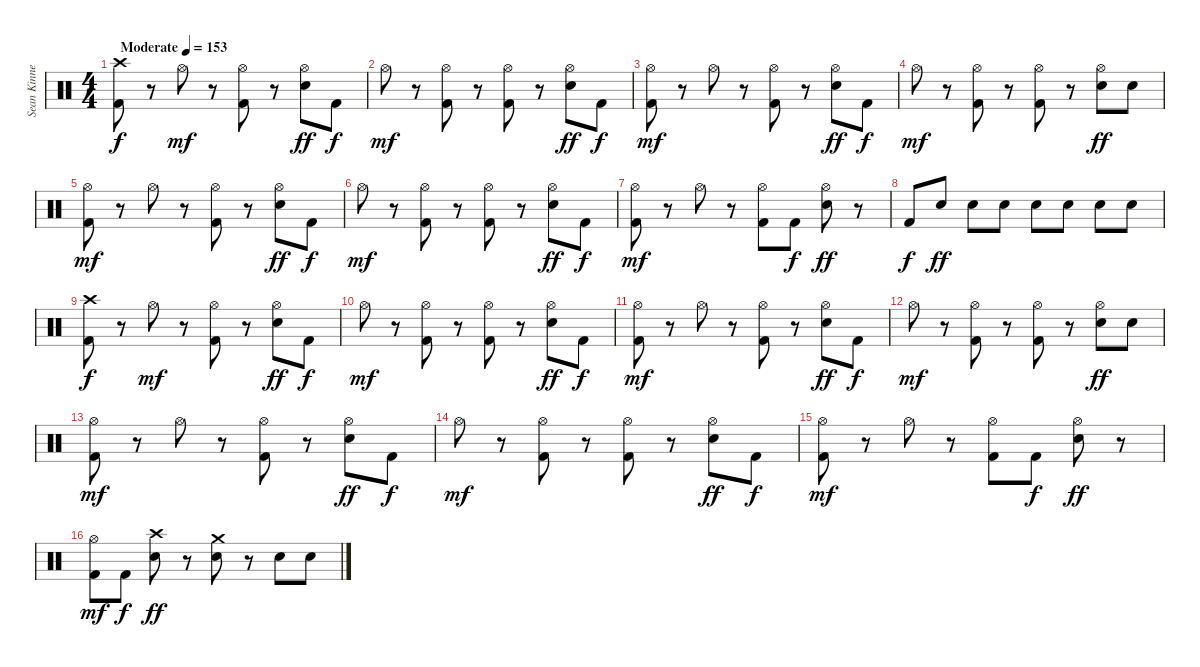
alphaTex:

\track ("Sean Kinney - Drums" "Sean Kinne") {instrument percussion}
\staff {score}
\articulation defaults
\ts (4 4)
\tempo (153 "Moderate")
\clef neutral
\ks c
("Crash high (hit)" "Kick (hit) 2").8{dy f} r.8 "Hi-Hat (open)".8{dy mf} r.8 ("Hi-Hat (open)" "Kick (hit) 2").8 r.8 ("Hi-Hat (open)" "Snare (hit) 2").8{dy ff} "Kick (hit) 2".8{dy f} |
"Hi-Hat (open)".8{dy mf} r.8 ("Hi-Hat (open)" "Kick (hit) 2").8 r.8 ("Hi-Hat (open)" "Kick (hit) 2").8 r.8 ("Hi-Hat (open)" "Snare (hit) 2").8{dy ff} "Kick (hit) 2".8{dy f} |
("Hi-Hat (open)" "Kick (hit) 2").8{dy mf} r.8 "Hi-Hat (open)".8 r.8 ("Hi-Hat (open)" "Kick (hit) 2").8 r.8 ("Hi-Hat (open)" "Snare (hit) 2").8{dy ff} "Kick (hit) 2".8{dy f} |
"Hi-Hat (open)".8{dy mf} r.8 ("Hi-Hat (open)" "Kick (hit) 2").8 r.8 ("Hi-Hat (open)" "Kick (hit) 2").8 r.8 ("Hi-Hat (open)" "Snare (hit) 2").8{dy ff} "Snare (hit) 2".8 |
("Hi-Hat (open)" "Kick (hit) 2").8{dy mf} r.8 "Hi-Hat (open)".8 r.8 ("Hi-Hat (open)" "Kick (hit) 2").8 r.8 ("Hi-Hat (open)" "Snare (hit) 2").8{dy ff} "Kick (hit) 2".8{dy f} |
"Hi-Hat (open)".8{dy mf} r.8 ("Hi-Hat (open)" "Kick (hit) 2").8 r.8 ("Hi-Hat (open)" "Kick (hit) 2").8 r.8 ("Hi-Hat (open)" "Snare (hit) 2").8{dy ff} "Kick (hit) 2".8{dy f} |
("Hi-Hat (open)" "Kick (hit) 2").8{dy mf} r.8 "Hi-Hat (open)".8 r.8 ("Hi-Hat (open)" "Kick (hit) 2").8 "Kick (hit) 2".8{dy f} ("Hi-Hat (open)" "Snare (hit) 2").8{dy ff} r.8 |
"Kick (hit) 2".8{dy f} "Snare (hit) 2".8{dy ff} "Snare (hit) 2".8 "Snare (hit) 2".8 "Snare (hit) 2".8 "Snare (hit) 2".8 "Snare (hit) 2".8 "Snare (hit) 2".8 |
("Crash high (hit)" "Kick (hit) 2").8{dy f} r.8 "Hi-Hat (open)".8{dy mf} r.8 ("Hi-Hat (open)" "Kick (hit) 2").8 r.8 ("Hi-Hat (open)" "Snare (hit) 2").8{dy ff} "Kick (hit) 2".8{dy f} |
"Hi-Hat (open)".8{dy mf} r.8 ("Hi-Hat (open)" "Kick (hit) 2").8 r.8 ("Hi-Hat (open)" "Kick (hit) 2").8 r.8 ("Hi-Hat (open)" "Snare (hit) 2").8{dy ff} "Kick (hit) 2".8{dy f} |
("Hi-Hat (open)" "Kick (hit) 2").8{dy mf} r.8 "Hi-Hat (open)".8 r.8 ("Hi-Hat (open)" "Kick (hit) 2").8 r.8 ("Hi-Hat (open)" "Snare (hit) 2").8{dy ff} "Kick (hit) 2".8{dy f} |
"Hi-Hat (open)".8{dy mf} r.8 ("Hi-Hat (open)" "Kick (hit) 2").8 r.8 ("Hi-Hat (open)" "Kick (hit) 2").8 r.8 ("Hi-Hat (open)" "Snare (hit) 2").8{dy ff} "Snare (hit) 2".8 |
("Hi-Hat (open)" "Kick (hit) 2").8{dy mf} r.8 "Hi-Hat (open)".8 r.8 ("Hi-Hat (open)" "Kick (hit) 2").8 r.8 ("Hi-Hat (open)" "Snare (hit) 2").8{dy ff} "Kick (hit) 2".8{dy f} |
"Hi-Hat (open)".8{dy mf} r.8 ("Hi-Hat (open)" "Kick (hit) 2").8 r.8 ("Hi-Hat (open)" "Kick (hit) 2").8 r.8 ("Hi-Hat (open)" "Snare (hit) 2").8{dy ff} "Kick (hit) 2".8{dy f} |
("Hi-Hat (open)" "Kick (hit) 2").8{dy mf} r.8 "Hi-Hat (open)".8 r.8 ("Hi-Hat (open)" "Kick (hit) 2").8 "Kick (hit) 2".8{dy f} ("Hi-Hat (open)" "Snare (hit) 2").8{dy ff} r.8 |
("Hi-Hat (open)" "Kick (hit) 2").8{dy mf} "Kick (hit) 2".8{dy f} ("Crash high (hit)" "Snare (hit) 2").8{dy ff} r.8 ("Crash medium (hit)" "Snare (hit) 2").8 r.8 "Snare (hit) 2".8 "Snare (hit) 2".8
